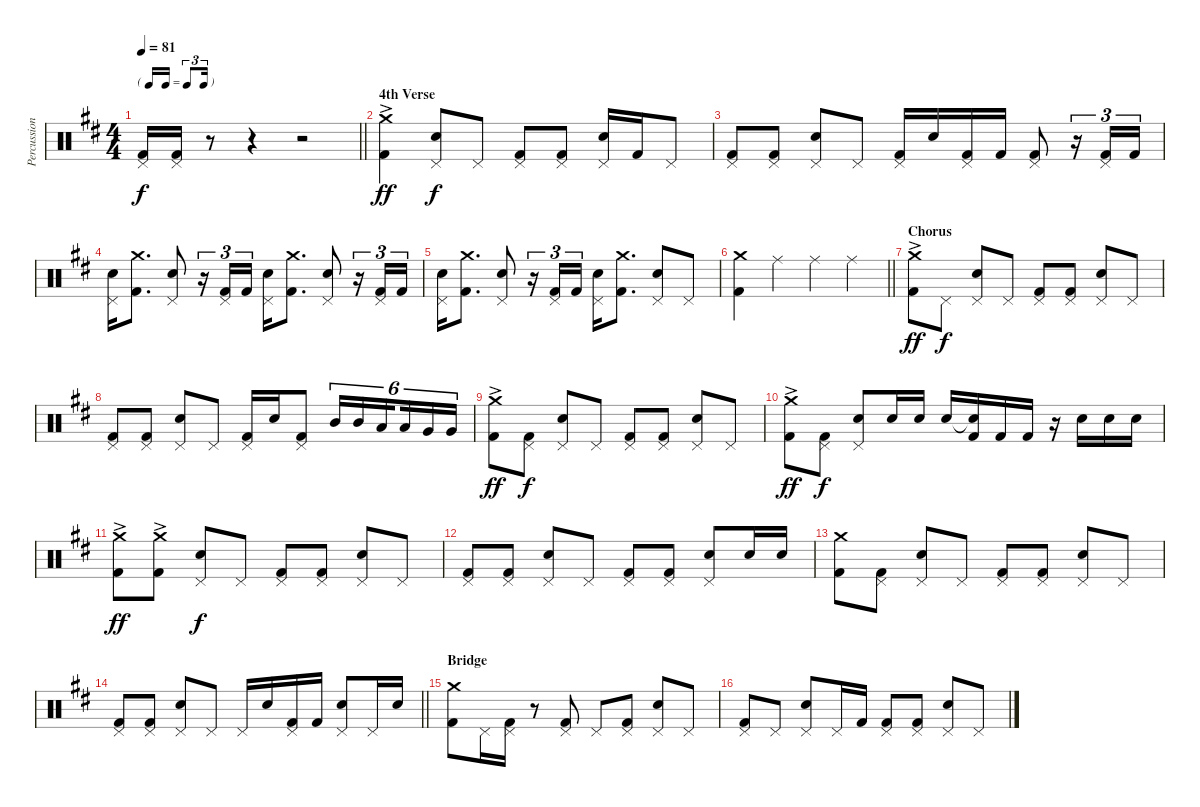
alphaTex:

\track ("Percussion" "Percussion") {instrument percussion}
\staff {score}
\articulation defaults
\ts (4 4)
\tf triplet16th
\tempo 81
\clef neutral
\barLineRight lightlight
\ks d
("Pedal Hi-Hat (hit)" "Kick (hit) 2").16{dy f} ("Pedal Hi-Hat (hit)" "Kick (hit) 2").16 r.8 r.4 r.2 |
\section ("" "4th Verse")
("Crash medium (hit)"{ac} "Kick (hit) 2").4{dy ff} ("Pedal Hi-Hat (hit)" "Snare (hit) 2").8{dy f} "Pedal Hi-Hat (hit)".8 ("Pedal Hi-Hat (hit)" "Kick (hit) 2").8 ("Pedal Hi-Hat (hit)" "Kick (hit) 2").8 ("Pedal Hi-Hat (hit)" "Snare (hit) 2").16 "Kick (hit) 2".16 "Pedal Hi-Hat (hit)".8 |
("Pedal Hi-Hat (hit)" "Kick (hit) 2").8 ("Pedal Hi-Hat (hit)" "Kick (hit) 2").8 ("Pedal Hi-Hat (hit)" "Snare (hit) 2").8 "Pedal Hi-Hat (hit)".8 ("Pedal Hi-Hat (hit)" "Kick (hit) 2").16 "Snare (hit) 2".16 ("Pedal Hi-Hat (hit)" "Kick (hit) 2").16 "Kick (hit) 2".16 ("Pedal Hi-Hat (hit)" "Kick (hit) 2").8 r.16{tu (3 2)} ("Pedal Hi-Hat (hit)" "Kick (hit) 2").16{tu (3 2)} "Kick (hit) 2".16{tu (3 2)} |
("Pedal Hi-Hat (hit)" "Snare (hit) 2").16 ("Crash medium (hit)" "Kick (hit) 2").8{d} ("Pedal Hi-Hat (hit)" "Snare (hit) 2").8 r.16{tu (3 2)} ("Pedal Hi-Hat (hit)" "Kick (hit) 2").16{tu (3 2)} "Kick (hit) 2".16{tu (3 2)} ("Pedal Hi-Hat (hit)" "Snare (hit) 2").16 ("Crash medium (hit)" "Kick (hit) 2").8{d} ("Pedal Hi-Hat (hit)" "Snare (hit) 2").8 r.16{tu (3 2)} ("Pedal Hi-Hat (hit)" "Kick (hit) 2").16{tu (3 2)} "Kick (hit) 2".16{tu (3 2)} |
("Pedal Hi-Hat (hit)" "Snare (hit) 2").16 ("Crash medium (hit)" "Kick (hit) 2").8{d} ("Pedal Hi-Hat (hit)" "Snare (hit) 2").8 r.16{tu (3 2)} ("Pedal Hi-Hat (hit)" "Kick (hit) 2").16{tu (3 2)} "Kick (hit) 2".16{tu (3 2)} ("Pedal Hi-Hat (hit)" "Snare (hit) 2").16 ("Crash medium (hit)" "Kick (hit) 2").8{d} ("Pedal Hi-Hat (hit)" "Snare (hit) 2").8 "Pedal Hi-Hat (hit)".8 |
\barLineRight lightlight
("Crash medium (hit)" "Kick (hit) 2").4 "Ride (middle)".4 "Ride (middle)".4 "Ride (middle)".4 |
\section ("" "Chorus")
("Crash medium (hit)"{ac} "Kick (hit) 2").8{dy ff} "Pedal Hi-Hat (hit)".8{dy f} ("Pedal Hi-Hat (hit)" "Snare (hit) 2").8 "Pedal Hi-Hat (hit)".8 ("Pedal Hi-Hat (hit)" "Kick (hit) 2").8 ("Pedal Hi-Hat (hit)" "Kick (hit) 2").8 ("Pedal Hi-Hat (hit)" "Snare (hit) 2").8 "Pedal Hi-Hat (hit)".8 |
("Pedal Hi-Hat (hit)" "Kick (hit) 2").8 ("Pedal Hi-Hat (hit)" "Kick (hit) 2").8 ("Pedal Hi-Hat (hit)" "Snare (hit) 2").8 "Pedal Hi-Hat (hit)".8 ("Pedal Hi-Hat (hit)" "Kick (hit) 2").16 "Snare (hit) 2".16 ("Pedal Hi-Hat (hit)" "Kick (hit) 2").8 "Mid Tom (hit)".16{tu (6 4)} "Mid Tom (hit)".16{tu (6 4)} "Low Tom (hit)".16{tu (6 4) beam splitsecondary} "Low Tom (hit)".16{tu (6 4)} "Very Low Tom (hit)".16{tu (6 4)} "Very Low Tom (hit)".16{tu (6 4)} |
("Crash medium (hit)"{ac} "Kick (hit) 2").8{dy ff} ("Pedal Hi-Hat (hit)" "Kick (hit) 2").8{dy f} ("Pedal Hi-Hat (hit)" "Snare (hit) 2").8 "Pedal Hi-Hat (hit)".8 ("Pedal Hi-Hat (hit)" "Kick (hit) 2").8 ("Pedal Hi-Hat (hit)" "Kick (hit) 2").8 ("Pedal Hi-Hat (hit)" "Snare (hit) 2").8 "Pedal Hi-Hat (hit)".8 |
("Crash medium (hit)"{ac} "Kick (hit) 2").8{dy ff} ("Pedal Hi-Hat (hit)" "Kick (hit) 2").8{dy f} ("Pedal Hi-Hat (hit)" "Snare (hit) 2").8 "Snare (hit) 2".16 "Snare (hit) 2".16 "Snare (hit) 2".16 ("Snare (hit) 2"{t} "Kick (hit) 2").16 "Kick (hit) 2".16 "Kick (hit) 2".16 r.16 "Snare (hit) 2".16 "Snare (hit) 2".16 "Snare (hit) 2".16 |
("Crash medium (hit)"{ac} "Kick (hit) 2").8{dy ff} ("Crash medium (hit)"{ac} "Kick (hit) 2").8 ("Pedal Hi-Hat (hit)" "Snare (hit) 2").8{dy f} "Pedal Hi-Hat (hit)".8 ("Pedal Hi-Hat (hit)" "Kick (hit) 2").8 ("Pedal Hi-Hat (hit)" "Kick (hit) 2").8 ("Pedal Hi-Hat (hit)" "Snare (hit) 2").8 "Pedal Hi-Hat (hit)".8 |
("Pedal Hi-Hat (hit)" "Kick (hit) 2").8 ("Pedal Hi-Hat (hit)" "Kick (hit) 2").8 ("Pedal Hi-Hat (hit)" "Snare (hit) 2").8 "Pedal Hi-Hat (hit)".8 ("Pedal Hi-Hat (hit)" "Kick (hit) 2").8 ("Pedal Hi-Hat (hit)" "Kick (hit) 2").8 ("Pedal Hi-Hat (hit)" "Snare (hit) 2").8 "Snare (hit) 2".16 "Snare (hit) 2".16 |
("Crash medium (hit)" "Kick (hit) 2").8 ("Pedal Hi-Hat (hit)" "Kick (hit) 2").8 ("Pedal Hi-Hat (hit)" "Snare (hit) 2").8 "Pedal Hi-Hat (hit)".8 ("Pedal Hi-Hat (hit)" "Kick (hit) 2").8 ("Pedal Hi-Hat (hit)" "Kick (hit) 2").8 ("Pedal Hi-Hat (hit)" "Snare (hit) 2").8 "Pedal Hi-Hat (hit)".8 |
\barLineRight lightlight
("Pedal Hi-Hat (hit)" "Kick (hit) 2").8 ("Pedal Hi-Hat (hit)" "Kick (hit) 2").8 ("Pedal Hi-Hat (hit)" "Snare (hit) 2").8 "Pedal Hi-Hat (hit)".8 "Pedal Hi-Hat (hit)".16 "Snare (hit) 2".16 ("Pedal Hi-Hat (hit)" "Kick (hit) 2").16 "Kick (hit) 2".16 ("Pedal Hi-Hat (hit)" "Snare (hit) 2").8 "Pedal Hi-Hat (hit)".16 "Snare (hit) 2".16 |
\section ("" "Bridge")
("Crash medium (hit)" "Kick (hit) 2").8 "Pedal Hi-Hat (hit)".16 ("Pedal Hi-Hat (hit)" "Kick (hit) 2").16 r.8 ("Pedal Hi-Hat (hit)" "Kick (hit) 2").8 "Pedal Hi-Hat (hit)".8 ("Pedal Hi-Hat (hit)" "Kick (hit) 2").8 ("Pedal Hi-Hat (hit)" "Snare (hit) 2").8 "Pedal Hi-Hat (hit)".8 |
("Pedal Hi-Hat (hit)" "Kick (hit) 2").8 "Pedal Hi-Hat (hit)".8 ("Pedal Hi-Hat (hit)" "Snare (hit) 2").8 "Pedal Hi-Hat (hit)".16 "Kick (hit) 2".16 ("Pedal Hi-Hat (hit)" "Kick (hit) 2").8 ("Pedal Hi-Hat (hit)" "Kick (hit) 2").8 ("Pedal Hi-Hat (hit)" "Snare (hit) 2").8 "Pedal Hi-Hat (hit)".8
